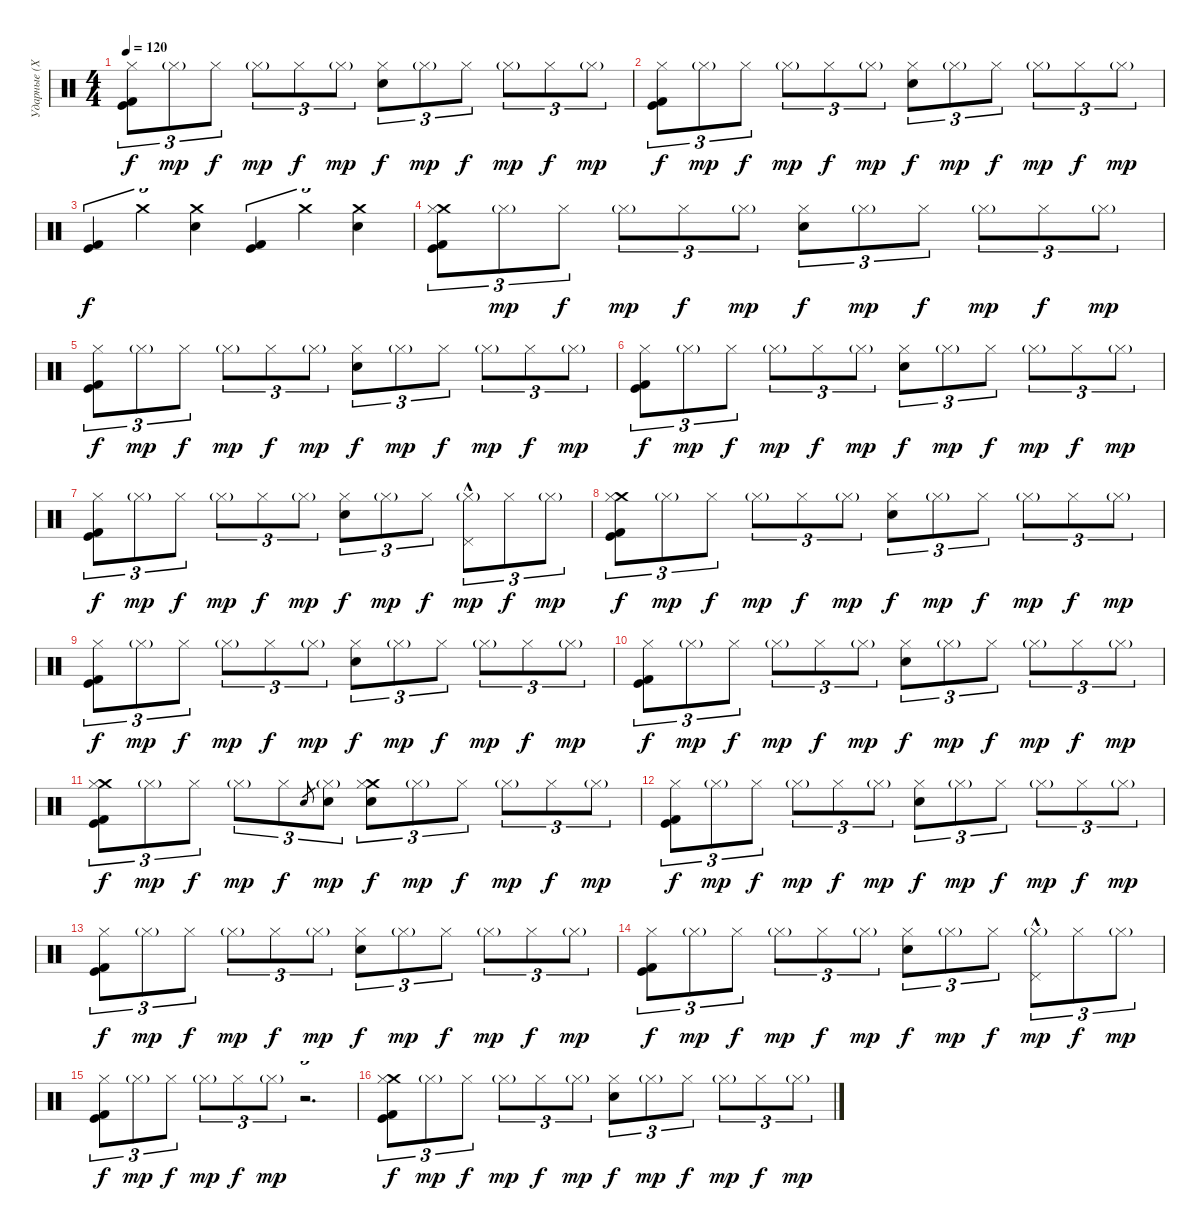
\track ("Ударные (Хеллхаммер)" "Ударные (Х") {instrument percussion}
\staff {score}
\articulation defaults
\ts (4 4)
\tempo 120
\clef neutral
\ks c
("Hi-Hat (closed)" "Kick (hit) 2" "Kick (hit)").8{tu (3 2) dy f} "Hi-Hat (closed)"{g}.8{tu (3 2) dy mp} "Hi-Hat (closed)".8{tu (3 2) dy f} "Hi-Hat (closed)"{g}.8{tu (3 2) dy mp} "Hi-Hat (closed)".8{tu (3 2) dy f} "Hi-Hat (closed)"{g}.8{tu (3 2) dy mp} ("Electric Snare (hit)" "Hi-Hat (closed)").8{tu (3 2) dy f} "Hi-Hat (closed)"{g}.8{tu (3 2) dy mp} "Hi-Hat (closed)".8{tu (3 2) dy f} "Hi-Hat (closed)"{g}.8{tu (3 2) dy mp} "Hi-Hat (closed)".8{tu (3 2) dy f} "Hi-Hat (closed)"{g}.8{tu (3 2) dy mp} |
("Hi-Hat (closed)" "Kick (hit) 2" "Kick (hit)").8{tu (3 2) dy f} "Hi-Hat (closed)"{g}.8{tu (3 2) dy mp} "Hi-Hat (closed)".8{tu (3 2) dy f} "Hi-Hat (closed)"{g}.8{tu (3 2) dy mp} "Hi-Hat (closed)".8{tu (3 2) dy f} "Hi-Hat (closed)"{g}.8{tu (3 2) dy mp} ("Electric Snare (hit)" "Hi-Hat (closed)").8{tu (3 2) dy f} "Hi-Hat (closed)"{g}.8{tu (3 2) dy mp} "Hi-Hat (closed)".8{tu (3 2) dy f} "Hi-Hat (closed)"{g}.8{tu (3 2) dy mp} "Hi-Hat (closed)".8{tu (3 2) dy f} "Hi-Hat (closed)"{g}.8{tu (3 2) dy mp} |
("Kick (hit) 2" "Kick (hit)").4{tu (3 2) dy f} "Crash medium (hit)".4{tu (3 2)} ("Crash medium (hit)" "Electric Snare (hit)").4{tu (3 2)} ("Kick (hit) 2" "Kick (hit)").4{tu (3 2)} "Crash medium (hit)".4{tu (3 2)} ("Crash medium (hit)" "Electric Snare (hit)").4{tu (3 2)} |
("Crash medium (hit)" "Hi-Hat (closed)" "Kick (hit) 2" "Kick (hit)").8{tu (3 2)} "Hi-Hat (closed)"{g}.8{tu (3 2) dy mp} "Hi-Hat (closed)".8{tu (3 2) dy f} "Hi-Hat (closed)"{g}.8{tu (3 2) dy mp} "Hi-Hat (closed)".8{tu (3 2) dy f} "Hi-Hat (closed)"{g}.8{tu (3 2) dy mp} ("Electric Snare (hit)" "Hi-Hat (closed)").8{tu (3 2) dy f} "Hi-Hat (closed)"{g}.8{tu (3 2) dy mp} "Hi-Hat (closed)".8{tu (3 2) dy f} "Hi-Hat (closed)"{g}.8{tu (3 2) dy mp} "Hi-Hat (closed)".8{tu (3 2) dy f} "Hi-Hat (closed)"{g}.8{tu (3 2) dy mp} |
("Hi-Hat (closed)" "Kick (hit) 2" "Kick (hit)").8{tu (3 2) dy f} "Hi-Hat (closed)"{g}.8{tu (3 2) dy mp} "Hi-Hat (closed)".8{tu (3 2) dy f} "Hi-Hat (closed)"{g}.8{tu (3 2) dy mp} "Hi-Hat (closed)".8{tu (3 2) dy f} "Hi-Hat (closed)"{g}.8{tu (3 2) dy mp} ("Electric Snare (hit)" "Hi-Hat (closed)").8{tu (3 2) dy f} "Hi-Hat (closed)"{g}.8{tu (3 2) dy mp} "Hi-Hat (closed)".8{tu (3 2) dy f} "Hi-Hat (closed)"{g}.8{tu (3 2) dy mp} "Hi-Hat (closed)".8{tu (3 2) dy f} "Hi-Hat (closed)"{g}.8{tu (3 2) dy mp} |
("Hi-Hat (closed)" "Kick (hit) 2" "Kick (hit)").8{tu (3 2) dy f} "Hi-Hat (closed)"{g}.8{tu (3 2) dy mp} "Hi-Hat (closed)".8{tu (3 2) dy f} "Hi-Hat (closed)"{g}.8{tu (3 2) dy mp} "Hi-Hat (closed)".8{tu (3 2) dy f} "Hi-Hat (closed)"{g}.8{tu (3 2) dy mp} ("Electric Snare (hit)" "Hi-Hat (closed)").8{tu (3 2) dy f} "Hi-Hat (closed)"{g}.8{tu (3 2) dy mp} "Hi-Hat (closed)".8{tu (3 2) dy f} "Hi-Hat (closed)"{g}.8{tu (3 2) dy mp} "Hi-Hat (closed)".8{tu (3 2) dy f} "Hi-Hat (closed)"{g}.8{tu (3 2) dy mp} |
("Hi-Hat (closed)" "Kick (hit) 2" "Kick (hit)").8{tu (3 2) dy f} "Hi-Hat (closed)"{g}.8{tu (3 2) dy mp} "Hi-Hat (closed)".8{tu (3 2) dy f} "Hi-Hat (closed)"{g}.8{tu (3 2) dy mp} "Hi-Hat (closed)".8{tu (3 2) dy f} "Hi-Hat (closed)"{g}.8{tu (3 2) dy mp} ("Electric Snare (hit)" "Hi-Hat (closed)").8{tu (3 2) dy f} "Hi-Hat (closed)"{g}.8{tu (3 2) dy mp} "Hi-Hat (closed)".8{tu (3 2) dy f} ("Pedal Hi-Hat (hit)"{hac} "Hi-Hat (closed)"{g}).8{tu (3 2) dy mp} "Hi-Hat (closed)".8{tu (3 2) dy f} "Hi-Hat (closed)"{g}.8{tu (3 2) dy mp} |
("Crash medium (hit)" "Hi-Hat (closed)" "Kick (hit) 2" "Kick (hit)").8{tu (3 2) dy f} "Hi-Hat (closed)"{g}.8{tu (3 2) dy mp} "Hi-Hat (closed)".8{tu (3 2) dy f} "Hi-Hat (closed)"{g}.8{tu (3 2) dy mp} "Hi-Hat (closed)".8{tu (3 2) dy f} "Hi-Hat (closed)"{g}.8{tu (3 2) dy mp} ("Electric Snare (hit)" "Hi-Hat (closed)").8{tu (3 2) dy f} "Hi-Hat (closed)"{g}.8{tu (3 2) dy mp} "Hi-Hat (closed)".8{tu (3 2) dy f} "Hi-Hat (closed)"{g}.8{tu (3 2) dy mp} "Hi-Hat (closed)".8{tu (3 2) dy f} "Hi-Hat (closed)"{g}.8{tu (3 2) dy mp} |
("Hi-Hat (closed)" "Kick (hit) 2" "Kick (hit)").8{tu (3 2) dy f} "Hi-Hat (closed)"{g}.8{tu (3 2) dy mp} "Hi-Hat (closed)".8{tu (3 2) dy f} "Hi-Hat (closed)"{g}.8{tu (3 2) dy mp} "Hi-Hat (closed)".8{tu (3 2) dy f} "Hi-Hat (closed)"{g}.8{tu (3 2) dy mp} ("Electric Snare (hit)" "Hi-Hat (closed)").8{tu (3 2) dy f} "Hi-Hat (closed)"{g}.8{tu (3 2) dy mp} "Hi-Hat (closed)".8{tu (3 2) dy f} "Hi-Hat (closed)"{g}.8{tu (3 2) dy mp} "Hi-Hat (closed)".8{tu (3 2) dy f} "Hi-Hat (closed)"{g}.8{tu (3 2) dy mp} |
("Hi-Hat (closed)" "Kick (hit) 2" "Kick (hit)").8{tu (3 2) dy f} "Hi-Hat (closed)"{g}.8{tu (3 2) dy mp} "Hi-Hat (closed)".8{tu (3 2) dy f} "Hi-Hat (closed)"{g}.8{tu (3 2) dy mp} "Hi-Hat (closed)".8{tu (3 2) dy f} "Hi-Hat (closed)"{g}.8{tu (3 2) dy mp} ("Electric Snare (hit)" "Hi-Hat (closed)").8{tu (3 2) dy f} "Hi-Hat (closed)"{g}.8{tu (3 2) dy mp} "Hi-Hat (closed)".8{tu (3 2) dy f} "Hi-Hat (closed)"{g}.8{tu (3 2) dy mp} "Hi-Hat (closed)".8{tu (3 2) dy f} "Hi-Hat (closed)"{g}.8{tu (3 2) dy mp} |
("Crash medium (hit)" "Hi-Hat (closed)" "Kick (hit) 2" "Kick (hit)").8{tu (3 2) dy f} "Hi-Hat (closed)"{g}.8{tu (3 2) dy mp} "Hi-Hat (closed)".8{tu (3 2) dy f} "Hi-Hat (closed)"{g}.8{tu (3 2) dy mp} "Hi-Hat (closed)".8{tu (3 2) dy f} "Electric Snare (hit)".8{gr} ("Electric Snare (hit)" "Hi-Hat (closed)"{g}).8{tu (3 2) dy mp} ("Crash medium (hit)" "Electric Snare (hit)" "Hi-Hat (closed)").8{tu (3 2) dy f} "Hi-Hat (closed)"{g}.8{tu (3 2) dy mp} "Hi-Hat (closed)".8{tu (3 2) dy f} "Hi-Hat (closed)"{g}.8{tu (3 2) dy mp} "Hi-Hat (closed)".8{tu (3 2) dy f} "Hi-Hat (closed)"{g}.8{tu (3 2) dy mp} |
("Hi-Hat (closed)" "Kick (hit) 2" "Kick (hit)").8{tu (3 2) dy f} "Hi-Hat (closed)"{g}.8{tu (3 2) dy mp} "Hi-Hat (closed)".8{tu (3 2) dy f} "Hi-Hat (closed)"{g}.8{tu (3 2) dy mp} "Hi-Hat (closed)".8{tu (3 2) dy f} "Hi-Hat (closed)"{g}.8{tu (3 2) dy mp} ("Electric Snare (hit)" "Hi-Hat (closed)").8{tu (3 2) dy f} "Hi-Hat (closed)"{g}.8{tu (3 2) dy mp} "Hi-Hat (closed)".8{tu (3 2) dy f} "Hi-Hat (closed)"{g}.8{tu (3 2) dy mp} "Hi-Hat (closed)".8{tu (3 2) dy f} "Hi-Hat (closed)"{g}.8{tu (3 2) dy mp} |
("Hi-Hat (closed)" "Kick (hit) 2" "Kick (hit)").8{tu (3 2) dy f} "Hi-Hat (closed)"{g}.8{tu (3 2) dy mp} "Hi-Hat (closed)".8{tu (3 2) dy f} "Hi-Hat (closed)"{g}.8{tu (3 2) dy mp} "Hi-Hat (closed)".8{tu (3 2) dy f} "Hi-Hat (closed)"{g}.8{tu (3 2) dy mp} ("Electric Snare (hit)" "Hi-Hat (closed)").8{tu (3 2) dy f} "Hi-Hat (closed)"{g}.8{tu (3 2) dy mp} "Hi-Hat (closed)".8{tu (3 2) dy f} "Hi-Hat (closed)"{g}.8{tu (3 2) dy mp} "Hi-Hat (closed)".8{tu (3 2) dy f} "Hi-Hat (closed)"{g}.8{tu (3 2) dy mp} |
("Hi-Hat (closed)" "Kick (hit) 2" "Kick (hit)").8{tu (3 2) dy f} "Hi-Hat (closed)"{g}.8{tu (3 2) dy mp} "Hi-Hat (closed)".8{tu (3 2) dy f} "Hi-Hat (closed)"{g}.8{tu (3 2) dy mp} "Hi-Hat (closed)".8{tu (3 2) dy f} "Hi-Hat (closed)"{g}.8{tu (3 2) dy mp} ("Electric Snare (hit)" "Hi-Hat (closed)").8{tu (3 2) dy f} "Hi-Hat (closed)"{g}.8{tu (3 2) dy mp} "Hi-Hat (closed)".8{tu (3 2) dy f} ("Pedal Hi-Hat (hit)"{hac} "Hi-Hat (closed)"{g}).8{tu (3 2) dy mp} "Hi-Hat (closed)".8{tu (3 2) dy f} "Hi-Hat (closed)"{g}.8{tu (3 2) dy mp} |
("Hi-Hat (closed)" "Kick (hit) 2" "Kick (hit)").8{tu (3 2) dy f} "Hi-Hat (closed)"{g}.8{tu (3 2) dy mp} "Hi-Hat (closed)".8{tu (3 2) dy f} "Hi-Hat (closed)"{g}.8{tu (3 2) dy mp} "Hi-Hat (closed)".8{tu (3 2) dy f} "Hi-Hat (closed)"{g}.8{tu (3 2) dy mp} r.2{d tu (3 2)} |
("Crash medium (hit)" "Hi-Hat (closed)" "Kick (hit) 2" "Kick (hit)").8{tu (3 2) dy f} "Hi-Hat (closed)"{g}.8{tu (3 2) dy mp} "Hi-Hat (closed)".8{tu (3 2) dy f} "Hi-Hat (closed)"{g}.8{tu (3 2) dy mp} "Hi-Hat (closed)".8{tu (3 2) dy f} "Hi-Hat (closed)"{g}.8{tu (3 2) dy mp} ("Electric Snare (hit)" "Hi-Hat (closed)").8{tu (3 2) dy f} "Hi-Hat (closed)"{g}.8{tu (3 2) dy mp} "Hi-Hat (closed)".8{tu (3 2) dy f} "Hi-Hat (closed)"{g}.8{tu (3 2) dy mp} "Hi-Hat (closed)".8{tu (3 2) dy f} "Hi-Hat (closed)"{g}.8{tu (3 2) dy mp}
